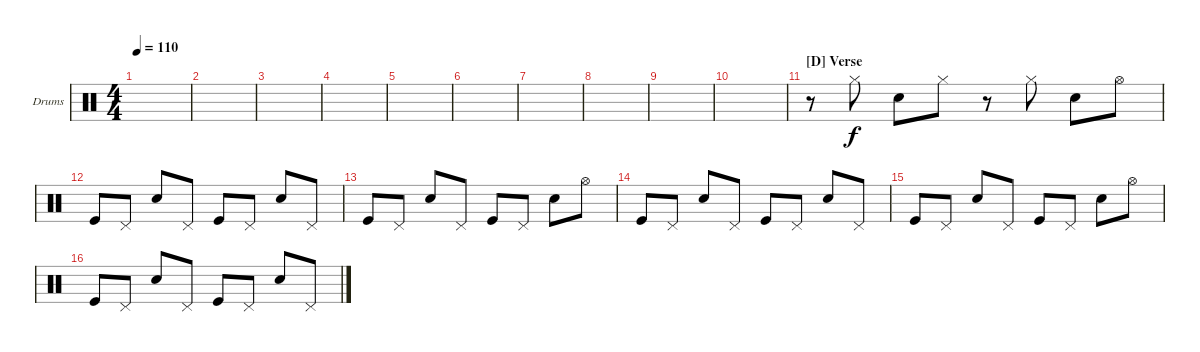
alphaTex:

\bracketExtendMode groupsimilarinstruments
\firstSystemTrackNameOrientation horizontal
\otherSystemsTrackNameOrientation horizontal
\track ("Drum Kit" "Drums") {instrument percussion}
\staff {score}
\articulation defaults
\ts (4 4)
\tempo 110
\clef neutral
\scale
0.333333
\ks c
|
\scale
0.333333 |
\scale
0.333333 |
\scale
0.333333 |
\scale
0.333333 |
\scale
0.333333 |
\scale
0.333333 |
\scale
0.333333 |
\scale
0.333333 |
\scale
0.333333 |
\section ("D" "Verse")
\scale
0.333333 r.8 "Hi-Hat (closed)".8 "Snare (hit) 2".8 "Hi-Hat (closed)".8 r.8 "Hi-Hat (closed)".8 "Snare (hit) 2".8 "Hi-Hat (open)".8 |
\scale
0.333333 "Kick (hit)".8 "Pedal Hi-Hat (hit)".8 "Snare (hit) 2".8 "Pedal Hi-Hat (hit)".8 "Kick (hit)".8 "Pedal Hi-Hat (hit)".8 "Snare (hit) 2".8 "Pedal Hi-Hat (hit)".8 |
\scale
0.333333 "Kick (hit)".8 "Pedal Hi-Hat (hit)".8 "Snare (hit) 2".8 "Pedal Hi-Hat (hit)".8 "Kick (hit)".8 "Pedal Hi-Hat (hit)".8 "Snare (hit) 2".8 "Hi-Hat (open)".8 |
\scale
0.333333 "Kick (hit)".8 "Pedal Hi-Hat (hit)".8 "Snare (hit) 2".8 "Pedal Hi-Hat (hit)".8 "Kick (hit)".8 "Pedal Hi-Hat (hit)".8 "Snare (hit) 2".8 "Pedal Hi-Hat (hit)".8 |
\scale
0.333333 "Kick (hit)".8 "Pedal Hi-Hat (hit)".8 "Snare (hit) 2".8 "Pedal Hi-Hat (hit)".8 "Kick (hit)".8 "Pedal Hi-Hat (hit)".8 "Snare (hit) 2".8 "Hi-Hat (open)".8 |
\scale
0.333333 "Kick (hit)".8 "Pedal Hi-Hat (hit)".8 "Snare (hit) 2".8 "Pedal Hi-Hat (hit)".8 "Kick (hit)".8 "Pedal Hi-Hat (hit)".8 "Snare (hit) 2".8 "Pedal Hi-Hat (hit)".8
